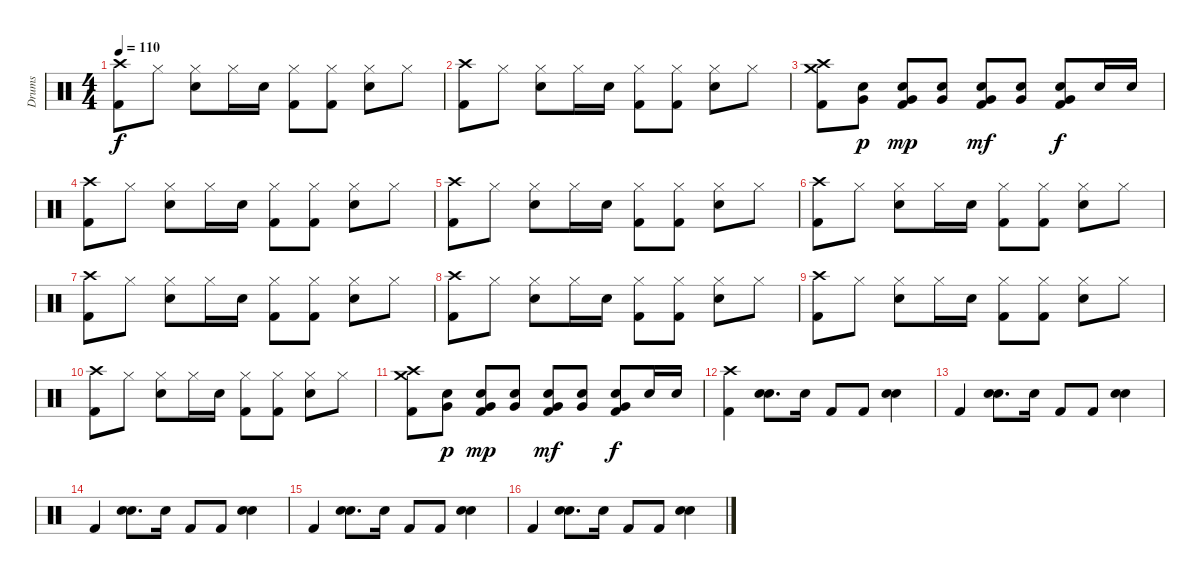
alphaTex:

\track ("Drums" "Drums") {instrument percussion}
\staff {score}
\articulation defaults
\ts (4 4)
\tempo 110
\clef neutral
\ks c
("Crash high (hit)" "Kick (hit) 2").8{dy f} "Hi-Hat (closed)".8 ("Hi-Hat (closed)" "Snare (hit) 2").8 "Hi-Hat (closed)".16 "Snare (hit) 2".16 ("Hi-Hat (closed)" "Kick (hit) 2").8 ("Hi-Hat (closed)" "Kick (hit) 2").8 ("Hi-Hat (closed)" "Snare (hit) 2").8 "Hi-Hat (closed)".8 |
("Crash high (hit)" "Kick (hit) 2").8 "Hi-Hat (closed)".8 ("Hi-Hat (closed)" "Snare (hit) 2").8 "Hi-Hat (closed)".16 "Snare (hit) 2".16 ("Hi-Hat (closed)" "Kick (hit) 2").8 ("Hi-Hat (closed)" "Kick (hit) 2").8 ("Hi-Hat (closed)" "Snare (hit) 2").8 "Hi-Hat (closed)".8 |
("Crash high (hit)" "Crash medium (hit)" "Kick (hit) 2").8 ("Very Low Tom (hit)" "Snare (hit) 2").8{dy p} ("Very Low Tom (hit)" "Snare (hit) 2" "Kick (hit) 2").8{dy mp} ("Very Low Tom (hit)" "Snare (hit) 2").8 ("Very Low Tom (hit)" "Snare (hit) 2" "Kick (hit) 2").8{dy mf} ("Very Low Tom (hit)" "Snare (hit) 2").8 ("Very Low Tom (hit)" "Snare (hit) 2" "Kick (hit) 2").8{dy f} "Snare (hit) 2".16 "Snare (hit) 2".16 |
("Crash high (hit)" "Kick (hit) 2").8 "Hi-Hat (closed)".8 ("Hi-Hat (closed)" "Snare (hit) 2").8 "Hi-Hat (closed)".16 "Snare (hit) 2".16 ("Hi-Hat (closed)" "Kick (hit) 2").8 ("Hi-Hat (closed)" "Kick (hit) 2").8 ("Hi-Hat (closed)" "Snare (hit) 2").8 "Hi-Hat (closed)".8 |
("Crash high (hit)" "Kick (hit) 2").8 "Hi-Hat (closed)".8 ("Hi-Hat (closed)" "Snare (hit) 2").8 "Hi-Hat (closed)".16 "Snare (hit) 2".16 ("Hi-Hat (closed)" "Kick (hit) 2").8 ("Hi-Hat (closed)" "Kick (hit) 2").8 ("Hi-Hat (closed)" "Snare (hit) 2").8 "Hi-Hat (closed)".8 |
("Crash high (hit)" "Kick (hit) 2").8 "Hi-Hat (closed)".8 ("Hi-Hat (closed)" "Snare (hit) 2").8 "Hi-Hat (closed)".16 "Snare (hit) 2".16 ("Hi-Hat (closed)" "Kick (hit) 2").8 ("Hi-Hat (closed)" "Kick (hit) 2").8 ("Hi-Hat (closed)" "Snare (hit) 2").8 "Hi-Hat (closed)".8 |
("Crash high (hit)" "Kick (hit) 2").8 "Hi-Hat (closed)".8 ("Hi-Hat (closed)" "Snare (hit) 2").8 "Hi-Hat (closed)".16 "Snare (hit) 2".16 ("Hi-Hat (closed)" "Kick (hit) 2").8 ("Hi-Hat (closed)" "Kick (hit) 2").8 ("Hi-Hat (closed)" "Snare (hit) 2").8 "Hi-Hat (closed)".8 |
("Crash high (hit)" "Kick (hit) 2").8 "Hi-Hat (closed)".8 ("Hi-Hat (closed)" "Snare (hit) 2").8 "Hi-Hat (closed)".16 "Snare (hit) 2".16 ("Hi-Hat (closed)" "Kick (hit) 2").8 ("Hi-Hat (closed)" "Kick (hit) 2").8 ("Hi-Hat (closed)" "Snare (hit) 2").8 "Hi-Hat (closed)".8 |
("Crash high (hit)" "Kick (hit) 2").8 "Hi-Hat (closed)".8 ("Hi-Hat (closed)" "Snare (hit) 2").8 "Hi-Hat (closed)".16 "Snare (hit) 2".16 ("Hi-Hat (closed)" "Kick (hit) 2").8 ("Hi-Hat (closed)" "Kick (hit) 2").8 ("Hi-Hat (closed)" "Snare (hit) 2").8 "Hi-Hat (closed)".8 |
("Crash high (hit)" "Kick (hit) 2").8 "Hi-Hat (closed)".8 ("Hi-Hat (closed)" "Snare (hit) 2").8 "Hi-Hat (closed)".16 "Snare (hit) 2".16 ("Hi-Hat (closed)" "Kick (hit) 2").8 ("Hi-Hat (closed)" "Kick (hit) 2").8 ("Hi-Hat (closed)" "Snare (hit) 2").8 "Hi-Hat (closed)".8 |
("Crash high (hit)" "Crash medium (hit)" "Kick (hit) 2").8 ("Very Low Tom (hit)" "Snare (hit) 2").8{dy p} ("Very Low Tom (hit)" "Snare (hit) 2" "Kick (hit) 2").8{dy mp} ("Very Low Tom (hit)" "Snare (hit) 2").8 ("Very Low Tom (hit)" "Snare (hit) 2" "Kick (hit) 2").8{dy mf} ("Very Low Tom (hit)" "Snare (hit) 2").8 ("Very Low Tom (hit)" "Snare (hit) 2" "Kick (hit) 2").8{dy f} "Snare (hit) 2".16 "Snare (hit) 2".16 |
("Crash high (hit)" "Kick (hit) 2").4 ("Hand Clap (hit)" "Snare (hit) 2").8{d} "Snare (hit) 2".16 "Kick (hit) 2".8 "Kick (hit) 2".8 ("Hand Clap (hit)" "Snare (hit) 2").4 |
"Kick (hit) 2".4 ("Hand Clap (hit)" "Snare (hit) 2").8{d} "Snare (hit) 2".16 "Kick (hit) 2".8 "Kick (hit) 2".8 ("Hand Clap (hit)" "Snare (hit) 2").4 |
"Kick (hit) 2".4 ("Hand Clap (hit)" "Snare (hit) 2").8{d} "Snare (hit) 2".16 "Kick (hit) 2".8 "Kick (hit) 2".8 ("Hand Clap (hit)" "Snare (hit) 2").4 |
"Kick (hit) 2".4 ("Hand Clap (hit)" "Snare (hit) 2").8{d} "Snare (hit) 2".16 "Kick (hit) 2".8 "Kick (hit) 2".8 ("Hand Clap (hit)" "Snare (hit) 2").4 |
"Kick (hit) 2".4 ("Hand Clap (hit)" "Snare (hit) 2").8{d} "Snare (hit) 2".16 "Kick (hit) 2".8 "Kick (hit) 2".8 ("Hand Clap (hit)" "Snare (hit) 2").4
